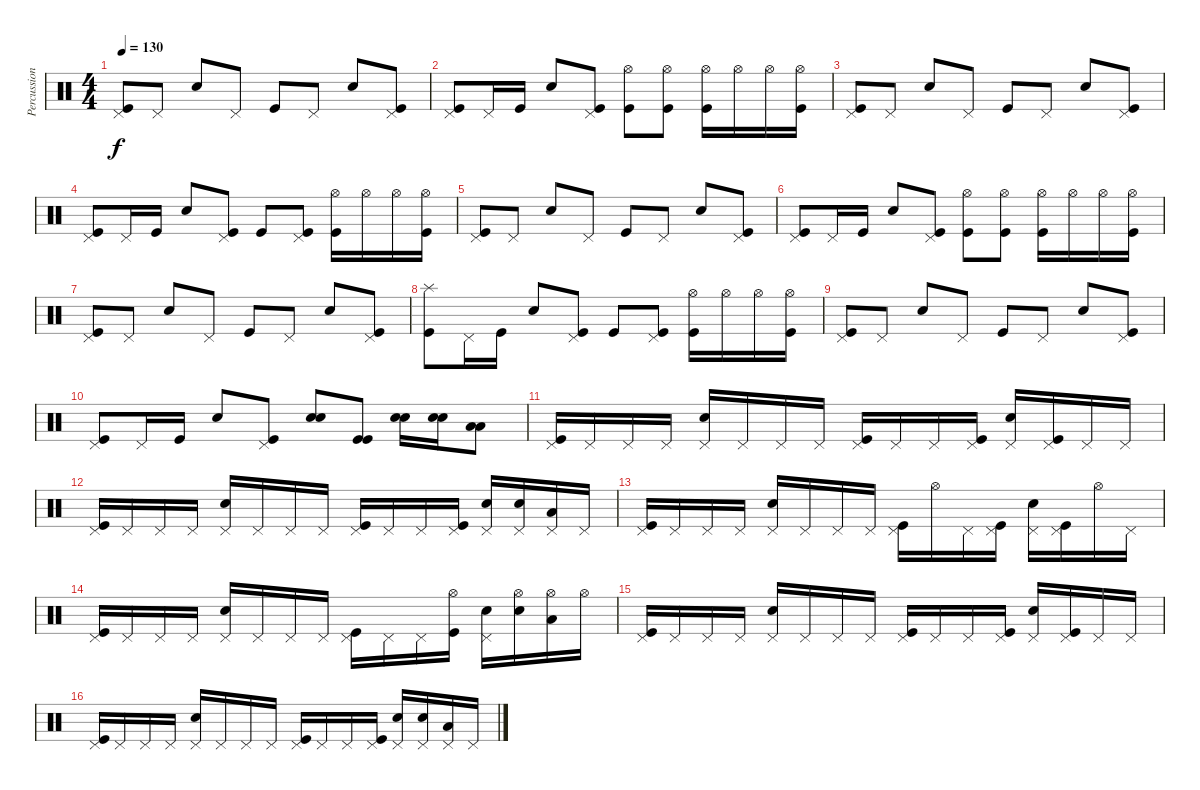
\track ("Percussion" "Percussion") {instrument percussion}
\staff {score}
\articulation defaults
\ts (4 4)
\tempo 130
\clef neutral
\ks c
("Pedal Hi-Hat (hit)" "Kick (hit)").8{dy f} "Pedal Hi-Hat (hit)".8 "Electric Snare (hit)".8 "Pedal Hi-Hat (hit)".8 "Kick (hit)".8 "Pedal Hi-Hat (hit)".8 "Electric Snare (hit)".8 ("Pedal Hi-Hat (hit)" "Kick (hit)").8 |
("Pedal Hi-Hat (hit)" "Kick (hit)").8 "Pedal Hi-Hat (hit)".16 "Kick (hit)".16 "Electric Snare (hit)".8 ("Pedal Hi-Hat (hit)" "Kick (hit)").8 ("Hi-Hat (open)" "Kick (hit)").8 ("Hi-Hat (open)" "Kick (hit)").8 ("Hi-Hat (open)" "Kick (hit)").16 "Hi-Hat (open)".16 "Hi-Hat (open)".16 ("Hi-Hat (open)" "Kick (hit)").16 |
("Pedal Hi-Hat (hit)" "Kick (hit)").8 "Pedal Hi-Hat (hit)".8 "Electric Snare (hit)".8 "Pedal Hi-Hat (hit)".8 "Kick (hit)".8 "Pedal Hi-Hat (hit)".8 "Electric Snare (hit)".8 ("Pedal Hi-Hat (hit)" "Kick (hit)").8 |
("Pedal Hi-Hat (hit)" "Kick (hit)").8 "Pedal Hi-Hat (hit)".16 "Kick (hit)".16 "Electric Snare (hit)".8 ("Pedal Hi-Hat (hit)" "Kick (hit)").8 "Kick (hit)".8 ("Pedal Hi-Hat (hit)" "Kick (hit)").8 ("Hi-Hat (open)" "Kick (hit)").16 "Hi-Hat (open)".16 "Hi-Hat (open)".16 ("Hi-Hat (open)" "Kick (hit)").16 |
("Pedal Hi-Hat (hit)" "Kick (hit)").8 "Pedal Hi-Hat (hit)".8 "Electric Snare (hit)".8 "Pedal Hi-Hat (hit)".8 "Kick (hit)".8 "Pedal Hi-Hat (hit)".8 "Electric Snare (hit)".8 ("Pedal Hi-Hat (hit)" "Kick (hit)").8 |
("Pedal Hi-Hat (hit)" "Kick (hit)").8 "Pedal Hi-Hat (hit)".16 "Kick (hit)".16 "Electric Snare (hit)".8 ("Pedal Hi-Hat (hit)" "Kick (hit)").8 ("Hi-Hat (open)" "Kick (hit)").8 ("Hi-Hat (open)" "Kick (hit)").8 ("Hi-Hat (open)" "Kick (hit)").16 "Hi-Hat (open)".16 "Hi-Hat (open)".16 ("Hi-Hat (open)" "Kick (hit)").16 |
("Pedal Hi-Hat (hit)" "Kick (hit)").8 "Pedal Hi-Hat (hit)".8 "Electric Snare (hit)".8 "Pedal Hi-Hat (hit)".8 "Kick (hit)".8 "Pedal Hi-Hat (hit)".8 "Electric Snare (hit)".8 ("Pedal Hi-Hat (hit)" "Kick (hit)").8 |
("Splash (hit)" "Kick (hit)").8 "Pedal Hi-Hat (hit)".16 "Kick (hit)".16 "Electric Snare (hit)".8 ("Pedal Hi-Hat (hit)" "Kick (hit)").8 "Kick (hit)".8 ("Pedal Hi-Hat (hit)" "Kick (hit)").8 ("Hi-Hat (open)" "Kick (hit)").16 "Hi-Hat (open)".16 "Hi-Hat (open)".16 ("Hi-Hat (open)" "Kick (hit)").16 |
("Pedal Hi-Hat (hit)" "Kick (hit)").8 "Pedal Hi-Hat (hit)".8 "Electric Snare (hit)".8 "Pedal Hi-Hat (hit)".8 "Kick (hit)".8 "Pedal Hi-Hat (hit)".8 "Electric Snare (hit)".8 ("Pedal Hi-Hat (hit)" "Kick (hit)").8 |
("Pedal Hi-Hat (hit)" "Kick (hit)").8 "Pedal Hi-Hat (hit)".16 "Kick (hit)".16 "Electric Snare (hit)".8 ("Pedal Hi-Hat (hit)" "Kick (hit)").8 ("Electric Snare (hit)" "Electric Snare (hit)").8 ("Kick (hit)" "Kick (hit)").8 ("Electric Snare (hit)" "Electric Snare (hit)").16 ("Electric Snare (hit)" "Electric Snare (hit)").16 ("Low Floor Tom (hit)" "Low Floor Tom (hit)").8 |
("Pedal Hi-Hat (hit)" "Kick (hit)").16 "Pedal Hi-Hat (hit)".16 "Pedal Hi-Hat (hit)".16 "Pedal Hi-Hat (hit)".16 ("Pedal Hi-Hat (hit)" "Electric Snare (hit)").16 "Pedal Hi-Hat (hit)".16 "Pedal Hi-Hat (hit)".16 "Pedal Hi-Hat (hit)".16 ("Pedal Hi-Hat (hit)" "Kick (hit)").16 "Pedal Hi-Hat (hit)".16 "Pedal Hi-Hat (hit)".16 ("Pedal Hi-Hat (hit)" "Kick (hit)").16 ("Pedal Hi-Hat (hit)" "Electric Snare (hit)").16 ("Pedal Hi-Hat (hit)" "Kick (hit)").16 "Pedal Hi-Hat (hit)".16 "Pedal Hi-Hat (hit)".16 |
("Pedal Hi-Hat (hit)" "Kick (hit)").16 "Pedal Hi-Hat (hit)".16 "Pedal Hi-Hat (hit)".16 "Pedal Hi-Hat (hit)".16 ("Pedal Hi-Hat (hit)" "Electric Snare (hit)").16 "Pedal Hi-Hat (hit)".16 "Pedal Hi-Hat (hit)".16 "Pedal Hi-Hat (hit)".16 ("Pedal Hi-Hat (hit)" "Kick (hit)").16 "Pedal Hi-Hat (hit)".16 "Pedal Hi-Hat (hit)".16 ("Pedal Hi-Hat (hit)" "Kick (hit)").16 ("Pedal Hi-Hat (hit)" "Electric Snare (hit)").16 ("Pedal Hi-Hat (hit)" "Electric Snare (hit)").16 ("Pedal Hi-Hat (hit)" "Low Tom (hit)").16 "Pedal Hi-Hat (hit)".16 |
("Pedal Hi-Hat (hit)" "Kick (hit)").16 "Pedal Hi-Hat (hit)".16 "Pedal Hi-Hat (hit)".16 "Pedal Hi-Hat (hit)".16 ("Pedal Hi-Hat (hit)" "Electric Snare (hit)").16 "Pedal Hi-Hat (hit)".16 "Pedal Hi-Hat (hit)".16 "Pedal Hi-Hat (hit)".16 ("Pedal Hi-Hat (hit)" "Kick (hit)").16 "Hi-Hat (open)".16 "Pedal Hi-Hat (hit)".16 ("Pedal Hi-Hat (hit)" "Kick (hit)").16 ("Pedal Hi-Hat (hit)" "Electric Snare (hit)").16 ("Pedal Hi-Hat (hit)" "Kick (hit)").16 "Hi-Hat (open)".16 "Pedal Hi-Hat (hit)".16 |
("Pedal Hi-Hat (hit)" "Kick (hit)").16 "Pedal Hi-Hat (hit)".16 "Pedal Hi-Hat (hit)".16 "Pedal Hi-Hat (hit)".16 ("Pedal Hi-Hat (hit)" "Electric Snare (hit)").16 "Pedal Hi-Hat (hit)".16 "Pedal Hi-Hat (hit)".16 "Pedal Hi-Hat (hit)".16 ("Pedal Hi-Hat (hit)" "Kick (hit)").16 "Pedal Hi-Hat (hit)".16 "Pedal Hi-Hat (hit)".16 ("Hi-Hat (open)" "Kick (hit)").16 ("Pedal Hi-Hat (hit)" "Electric Snare (hit)").16 ("Hi-Hat (open)" "Electric Snare (hit)").16 ("Hi-Hat (open)" "Low Tom (hit)").16 "Hi-Hat (open)".16 |
("Pedal Hi-Hat (hit)" "Kick (hit)").16 "Pedal Hi-Hat (hit)".16 "Pedal Hi-Hat (hit)".16 "Pedal Hi-Hat (hit)".16 ("Pedal Hi-Hat (hit)" "Electric Snare (hit)").16 "Pedal Hi-Hat (hit)".16 "Pedal Hi-Hat (hit)".16 "Pedal Hi-Hat (hit)".16 ("Pedal Hi-Hat (hit)" "Kick (hit)").16 "Pedal Hi-Hat (hit)".16 "Pedal Hi-Hat (hit)".16 ("Pedal Hi-Hat (hit)" "Kick (hit)").16 ("Pedal Hi-Hat (hit)" "Electric Snare (hit)").16 ("Pedal Hi-Hat (hit)" "Kick (hit)").16 "Pedal Hi-Hat (hit)".16 "Pedal Hi-Hat (hit)".16 |
("Pedal Hi-Hat (hit)" "Kick (hit)").16 "Pedal Hi-Hat (hit)".16 "Pedal Hi-Hat (hit)".16 "Pedal Hi-Hat (hit)".16 ("Pedal Hi-Hat (hit)" "Electric Snare (hit)").16 "Pedal Hi-Hat (hit)".16 "Pedal Hi-Hat (hit)".16 "Pedal Hi-Hat (hit)".16 ("Pedal Hi-Hat (hit)" "Kick (hit)").16 "Pedal Hi-Hat (hit)".16 "Pedal Hi-Hat (hit)".16 ("Pedal Hi-Hat (hit)" "Kick (hit)").16 ("Pedal Hi-Hat (hit)" "Electric Snare (hit)").16 ("Pedal Hi-Hat (hit)" "Electric Snare (hit)").16 ("Pedal Hi-Hat (hit)" "Low Tom (hit)").16 "Pedal Hi-Hat (hit)".16
